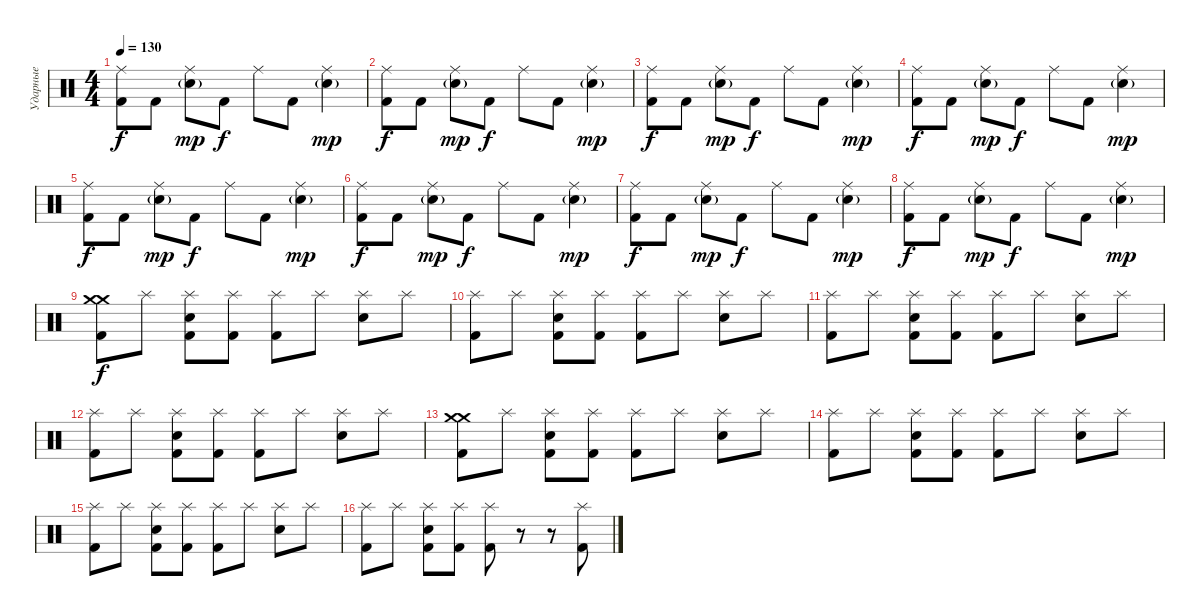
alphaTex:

\track ("Ударные" "Ударные") {instrument percussion}
\staff {score}
\articulation defaults
\ts (4 4)
\tempo 130
\clef neutral
\ks c
("Ride (middle)" "Kick (hit) 2").8{dy f} "Kick (hit) 2".8 ("Ride (middle)" "Electric Snare (hit)"{g}).8{dy mp} "Kick (hit) 2".8{dy f} "Ride (middle)".8 "Kick (hit) 2".8 ("Ride (middle)" "Electric Snare (hit)"{g}).4{dy mp} |
("Ride (middle)" "Kick (hit) 2").8{dy f} "Kick (hit) 2".8 ("Ride (middle)" "Electric Snare (hit)"{g}).8{dy mp} "Kick (hit) 2".8{dy f} "Ride (middle)".8 "Kick (hit) 2".8 ("Ride (middle)" "Electric Snare (hit)"{g}).4{dy mp} |
("Ride (middle)" "Kick (hit) 2").8{dy f} "Kick (hit) 2".8 ("Ride (middle)" "Electric Snare (hit)"{g}).8{dy mp} "Kick (hit) 2".8{dy f} "Ride (middle)".8 "Kick (hit) 2".8 ("Ride (middle)" "Electric Snare (hit)"{g}).4{dy mp} |
("Ride (middle)" "Kick (hit) 2").8{dy f} "Kick (hit) 2".8 ("Ride (middle)" "Electric Snare (hit)"{g}).8{dy mp} "Kick (hit) 2".8{dy f} "Ride (middle)".8 "Kick (hit) 2".8 ("Ride (middle)" "Electric Snare (hit)"{g}).4{dy mp} |
("Ride (middle)" "Kick (hit) 2").8{dy f} "Kick (hit) 2".8 ("Ride (middle)" "Electric Snare (hit)"{g}).8{dy mp} "Kick (hit) 2".8{dy f} "Ride (middle)".8 "Kick (hit) 2".8 ("Ride (middle)" "Electric Snare (hit)"{g}).4{dy mp} |
("Ride (middle)" "Kick (hit) 2").8{dy f} "Kick (hit) 2".8 ("Ride (middle)" "Electric Snare (hit)"{g}).8{dy mp} "Kick (hit) 2".8{dy f} "Ride (middle)".8 "Kick (hit) 2".8 ("Ride (middle)" "Electric Snare (hit)"{g}).4{dy mp} |
("Ride (middle)" "Kick (hit) 2").8{dy f} "Kick (hit) 2".8 ("Ride (middle)" "Electric Snare (hit)"{g}).8{dy mp} "Kick (hit) 2".8{dy f} "Ride (middle)".8 "Kick (hit) 2".8 ("Ride (middle)" "Electric Snare (hit)"{g}).4{dy mp} |
("Ride (middle)" "Kick (hit) 2").8{dy f} "Kick (hit) 2".8 ("Ride (middle)" "Electric Snare (hit)"{g}).8{dy mp} "Kick (hit) 2".8{dy f} "Ride (middle)".8 "Kick (hit) 2".8 ("Ride (middle)" "Electric Snare (hit)"{g}).4{dy mp} |
("Crash medium (hit)" "Crash medium (hit)" "Kick (hit) 2").8{dy f} "Splash (hit)".8 ("Splash (hit)" "Electric Snare (hit)" "Kick (hit) 2").8 ("Splash (hit)" "Kick (hit) 2").8 ("Splash (hit)" "Kick (hit) 2").8 "Splash (hit)".8 ("Splash (hit)" "Electric Snare (hit)").8 "Splash (hit)".8 |
("Splash (hit)" "Kick (hit) 2").8 "Splash (hit)".8 ("Splash (hit)" "Electric Snare (hit)" "Kick (hit) 2").8 ("Splash (hit)" "Kick (hit) 2").8 ("Splash (hit)" "Kick (hit) 2").8 "Splash (hit)".8 ("Splash (hit)" "Electric Snare (hit)").8 "Splash (hit)".8 |
("Splash (hit)" "Kick (hit) 2").8 "Splash (hit)".8 ("Splash (hit)" "Electric Snare (hit)" "Kick (hit) 2").8 ("Splash (hit)" "Kick (hit) 2").8 ("Splash (hit)" "Kick (hit) 2").8 "Splash (hit)".8 ("Splash (hit)" "Electric Snare (hit)").8 "Splash (hit)".8 |
("Splash (hit)" "Kick (hit) 2").8 "Splash (hit)".8 ("Splash (hit)" "Electric Snare (hit)" "Kick (hit) 2").8 ("Splash (hit)" "Kick (hit) 2").8 ("Splash (hit)" "Kick (hit) 2").8 "Splash (hit)".8 ("Splash (hit)" "Electric Snare (hit)").8 "Splash (hit)".8 |
("Crash medium (hit)" "Crash medium (hit)" "Kick (hit) 2").8 "Splash (hit)".8 ("Splash (hit)" "Electric Snare (hit)" "Kick (hit) 2").8 ("Splash (hit)" "Kick (hit) 2").8 ("Splash (hit)" "Kick (hit) 2").8 "Splash (hit)".8 ("Splash (hit)" "Electric Snare (hit)").8 "Splash (hit)".8 |
("Splash (hit)" "Kick (hit) 2").8 "Splash (hit)".8 ("Splash (hit)" "Electric Snare (hit)" "Kick (hit) 2").8 ("Splash (hit)" "Kick (hit) 2").8 ("Splash (hit)" "Kick (hit) 2").8 "Splash (hit)".8 ("Splash (hit)" "Electric Snare (hit)").8 "Splash (hit)".8 |
("Splash (hit)" "Kick (hit) 2").8 "Splash (hit)".8 ("Splash (hit)" "Electric Snare (hit)" "Kick (hit) 2").8 ("Splash (hit)" "Kick (hit) 2").8 ("Splash (hit)" "Kick (hit) 2").8 "Splash (hit)".8 ("Splash (hit)" "Electric Snare (hit)").8 "Splash (hit)".8 |
("Splash (hit)" "Kick (hit) 2").8 "Splash (hit)".8 ("Splash (hit)" "Electric Snare (hit)" "Kick (hit) 2").8 ("Splash (hit)" "Kick (hit) 2").8 ("Splash (hit)" "Kick (hit) 2").8 r.8 r.8 ("Splash (hit)" "Kick (hit) 2").8
